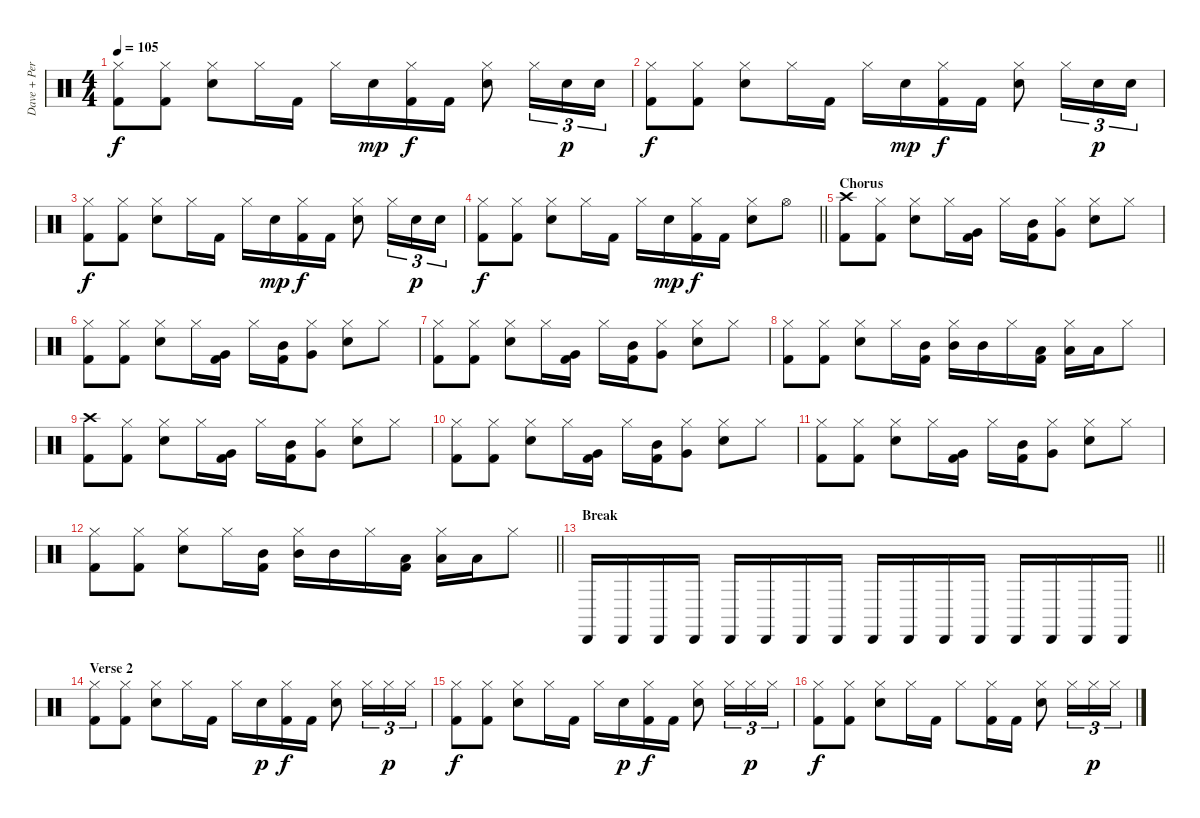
\track ("Dave + Perc" "Dave + Per") {instrument percussion}
\staff {score}
\articulation defaults
\ts (4 4)
\tempo 105
\clef neutral
\ks c
("Hi-Hat (closed)" "Kick (hit) 2").8{dy f} ("Hi-Hat (closed)" "Kick (hit) 2").8 ("Hi-Hat (closed)" "Snare (hit) 2").8 "Hi-Hat (closed)".16 "Kick (hit) 2".16 "Hi-Hat (closed)".16 "Snare (hit) 2".16{dy mp} ("Hi-Hat (closed)" "Kick (hit) 2").16{dy f} "Kick (hit) 2".16 ("Hi-Hat (closed)" "Snare (hit) 2").8 "Hi-Hat (closed)".16{tu (3 2)} "Snare (hit) 2".16{tu (3 2) dy p} "Snare (hit) 2".16{tu (3 2)} |
("Hi-Hat (closed)" "Kick (hit) 2").8{dy f} ("Hi-Hat (closed)" "Kick (hit) 2").8 ("Hi-Hat (closed)" "Snare (hit) 2").8 "Hi-Hat (closed)".16 "Kick (hit) 2".16 "Hi-Hat (closed)".16 "Snare (hit) 2".16{dy mp} ("Hi-Hat (closed)" "Kick (hit) 2").16{dy f} "Kick (hit) 2".16 ("Hi-Hat (closed)" "Snare (hit) 2").8 "Hi-Hat (closed)".16{tu (3 2)} "Snare (hit) 2".16{tu (3 2) dy p} "Snare (hit) 2".16{tu (3 2)} |
("Hi-Hat (closed)" "Kick (hit) 2").8{dy f} ("Hi-Hat (closed)" "Kick (hit) 2").8 ("Hi-Hat (closed)" "Snare (hit) 2").8 "Hi-Hat (closed)".16 "Kick (hit) 2".16 "Hi-Hat (closed)".16 "Snare (hit) 2".16{dy mp} ("Hi-Hat (closed)" "Kick (hit) 2").16{dy f} "Kick (hit) 2".16 ("Hi-Hat (closed)" "Snare (hit) 2").8 "Hi-Hat (closed)".16{tu (3 2)} "Snare (hit) 2".16{tu (3 2) dy p} "Snare (hit) 2".16{tu (3 2)} |
\barLineRight lightlight
("Hi-Hat (closed)" "Kick (hit) 2").8{dy f} ("Hi-Hat (closed)" "Kick (hit) 2").8 ("Hi-Hat (closed)" "Snare (hit) 2").8 "Hi-Hat (closed)".16 "Kick (hit) 2".16 "Hi-Hat (closed)".16 "Snare (hit) 2".16{dy mp} ("Hi-Hat (closed)" "Kick (hit) 2").16{dy f} "Kick (hit) 2".16 ("Hi-Hat (closed)" "Snare (hit) 2").8 "Hi-Hat (open)".8 |
\section ("" "Chorus")
("Crash high (hit)" "Kick (hit) 2").8 ("Hi-Hat (closed)" "Kick (hit) 2").8 ("Hi-Hat (closed)" "Snare (hit) 2").8 "Hi-Hat (closed)".16 ("Very Low Tom (hit)" "Kick (hit) 2").16 "Hi-Hat (closed)".16 ("Mid Tom (hit)" "Kick (hit) 2").16 ("Hi-Hat (closed)" "Very Low Tom (hit)").8 ("Hi-Hat (closed)" "Snare (hit) 2").8 "Hi-Hat (closed)".8 |
("Hi-Hat (closed)" "Kick (hit) 2").8 ("Hi-Hat (closed)" "Kick (hit) 2").8 ("Hi-Hat (closed)" "Snare (hit) 2").8 "Hi-Hat (closed)".16 ("Very Low Tom (hit)" "Kick (hit) 2").16 "Hi-Hat (closed)".16 ("Mid Tom (hit)" "Kick (hit) 2").16 ("Hi-Hat (closed)" "Very Low Tom (hit)").8 ("Hi-Hat (closed)" "Snare (hit) 2").8 "Hi-Hat (closed)".8 |
("Hi-Hat (closed)" "Kick (hit) 2").8 ("Hi-Hat (closed)" "Kick (hit) 2").8 ("Hi-Hat (closed)" "Snare (hit) 2").8 "Hi-Hat (closed)".16 ("Very Low Tom (hit)" "Kick (hit) 2").16 "Hi-Hat (closed)".16 ("Mid Tom (hit)" "Kick (hit) 2").16 ("Hi-Hat (closed)" "Very Low Tom (hit)").8 ("Hi-Hat (closed)" "Snare (hit) 2").8 "Hi-Hat (closed)".8 |
("Hi-Hat (closed)" "Kick (hit) 2").8 ("Hi-Hat (closed)" "Kick (hit) 2").8 ("Hi-Hat (closed)" "Snare (hit) 2").8 "Hi-Hat (closed)".16 ("Mid Tom (hit)" "Kick (hit) 2").16 ("Hi-Hat (closed)" "Mid Tom (hit)").16 "Mid Tom (hit)".16 "Hi-Hat (closed)".16 ("Low Tom (hit)" "Kick (hit) 2").16 ("Hi-Hat (closed)" "Low Tom (hit)").16 "Low Tom (hit)".16 "Hi-Hat (closed)".8 |
("Crash high (hit)" "Kick (hit) 2").8 ("Hi-Hat (closed)" "Kick (hit) 2").8 ("Hi-Hat (closed)" "Snare (hit) 2").8 "Hi-Hat (closed)".16 ("Very Low Tom (hit)" "Kick (hit) 2").16 "Hi-Hat (closed)".16 ("Mid Tom (hit)" "Kick (hit) 2").16 ("Hi-Hat (closed)" "Very Low Tom (hit)").8 ("Hi-Hat (closed)" "Snare (hit) 2").8 "Hi-Hat (closed)".8 |
("Hi-Hat (closed)" "Kick (hit) 2").8 ("Hi-Hat (closed)" "Kick (hit) 2").8 ("Hi-Hat (closed)" "Snare (hit) 2").8 "Hi-Hat (closed)".16 ("Very Low Tom (hit)" "Kick (hit) 2").16 "Hi-Hat (closed)".16 ("Mid Tom (hit)" "Kick (hit) 2").16 ("Hi-Hat (closed)" "Very Low Tom (hit)").8 ("Hi-Hat (closed)" "Snare (hit) 2").8 "Hi-Hat (closed)".8 |
("Hi-Hat (closed)" "Kick (hit) 2").8 ("Hi-Hat (closed)" "Kick (hit) 2").8 ("Hi-Hat (closed)" "Snare (hit) 2").8 "Hi-Hat (closed)".16 ("Very Low Tom (hit)" "Kick (hit) 2").16 "Hi-Hat (closed)".16 ("Mid Tom (hit)" "Kick (hit) 2").16 ("Hi-Hat (closed)" "Very Low Tom (hit)").8 ("Hi-Hat (closed)" "Snare (hit) 2").8 "Hi-Hat (closed)".8 |
\barLineRight lightlight
("Hi-Hat (closed)" "Kick (hit) 2").8 ("Hi-Hat (closed)" "Kick (hit) 2").8 ("Hi-Hat (closed)" "Snare (hit) 2").8 "Hi-Hat (closed)".16 ("Mid Tom (hit)" "Kick (hit) 2").16 ("Hi-Hat (closed)" "Mid Tom (hit)").16 "Mid Tom (hit)".16 "Hi-Hat (closed)".16 ("Low Tom (hit)" "Kick (hit) 2").16 ("Hi-Hat (closed)" "Low Tom (hit)").16 "Low Tom (hit)".16 "Hi-Hat (closed)".8 |
\section ("" "Break")
\barLineRight lightlight "Cabasa (hit)".16 "Cabasa (hit)".16 "Cabasa (hit)".16 "Cabasa (hit)".16 "Cabasa (hit)".16 "Cabasa (hit)".16 "Cabasa (hit)".16 "Cabasa (hit)".16 "Cabasa (hit)".16 "Cabasa (hit)".16 "Cabasa (hit)".16 "Cabasa (hit)".16 "Cabasa (hit)".16 "Cabasa (hit)".16 "Cabasa (hit)".16 "Cabasa (hit)".16
|
\section ("" "Verse 2")
("Hi-Hat (closed)" "Kick (hit) 2").8 ("Hi-Hat (closed)" "Kick (hit) 2").8 ("Hi-Hat (closed)" "Snare (hit) 2").8 "Hi-Hat (closed)".16 "Kick (hit) 2".16 "Hi-Hat (closed)".16 "Snare (hit) 2".16{dy p} ("Hi-Hat (closed)" "Kick (hit) 2").16{dy f} "Kick (hit) 2".16 ("Hi-Hat (closed)" "Snare (hit) 2").8 "Hi-Hat (closed)".16{tu (3 2)} "Hi-Hat (closed)".16{tu (3 2) dy p} "Hi-Hat (closed)".16{tu (3 2)} |
("Hi-Hat (closed)" "Kick (hit) 2").8{dy f} ("Hi-Hat (closed)" "Kick (hit) 2").8 ("Hi-Hat (closed)" "Snare (hit) 2").8 "Hi-Hat (closed)".16 "Kick (hit) 2".16 "Hi-Hat (closed)".16 "Snare (hit) 2".16{dy p} ("Hi-Hat (closed)" "Kick (hit) 2").16{dy f} "Kick (hit) 2".16 ("Hi-Hat (closed)" "Snare (hit) 2").8 "Hi-Hat (closed)".16{tu (3 2)} "Hi-Hat (closed)".16{tu (3 2) dy p} "Hi-Hat (closed)".16{tu (3 2)} |
("Hi-Hat (closed)" "Kick (hit) 2").8{dy f} ("Hi-Hat (closed)" "Kick (hit) 2").8 ("Hi-Hat (closed)" "Snare (hit) 2").8 "Hi-Hat (closed)".16 "Kick (hit) 2".16 "Hi-Hat (closed)".8 ("Hi-Hat (closed)" "Kick (hit) 2").16 "Kick (hit) 2".16 ("Hi-Hat (closed)" "Snare (hit) 2").8 "Hi-Hat (closed)".16{tu (3 2)} "Hi-Hat (closed)".16{tu (3 2) dy p} "Hi-Hat (closed)".16{tu (3 2)}
